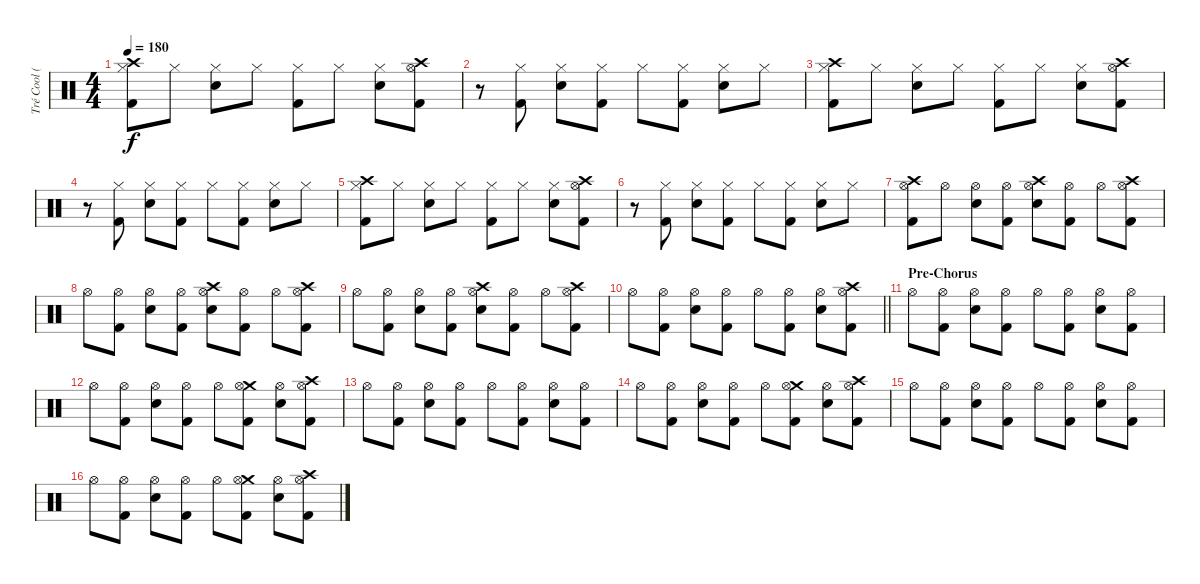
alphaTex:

\track ("Tré Cool (Drums)" "Tré Cool (") {instrument percussion}
\staff {score}
\articulation defaults
\ts (4 4)
\tempo 180
\clef neutral
\ks c
("Crash high (hit)" "Hi-Hat (closed)" "Kick (hit) 2").8{dy f} "Hi-Hat (closed)".8 ("Hi-Hat (closed)" "Electric Snare (hit)").8 "Hi-Hat (closed)".8 ("Hi-Hat (closed)" "Kick (hit) 2").8 "Hi-Hat (closed)".8 ("Hi-Hat (closed)" "Electric Snare (hit)").8 ("Crash high (hit)" "Hi-Hat (open)" "Kick (hit) 2").8 |
r.8 ("Hi-Hat (closed)" "Kick (hit) 2").8 ("Hi-Hat (closed)" "Electric Snare (hit)").8 ("Hi-Hat (closed)" "Kick (hit) 2").8 "Hi-Hat (closed)".8 ("Hi-Hat (closed)" "Kick (hit) 2").8 ("Hi-Hat (closed)" "Electric Snare (hit)").8 "Hi-Hat (closed)".8 |
("Crash high (hit)" "Hi-Hat (closed)" "Kick (hit) 2").8 "Hi-Hat (closed)".8 ("Hi-Hat (closed)" "Electric Snare (hit)").8 "Hi-Hat (closed)".8 ("Hi-Hat (closed)" "Kick (hit) 2").8 "Hi-Hat (closed)".8 ("Hi-Hat (closed)" "Electric Snare (hit)").8 ("Crash high (hit)" "Hi-Hat (open)" "Kick (hit) 2").8 |
r.8 ("Hi-Hat (closed)" "Kick (hit) 2").8 ("Hi-Hat (closed)" "Electric Snare (hit)").8 ("Hi-Hat (closed)" "Kick (hit) 2").8 "Hi-Hat (closed)".8 ("Hi-Hat (closed)" "Kick (hit) 2").8 ("Hi-Hat (closed)" "Electric Snare (hit)").8 "Hi-Hat (closed)".8 |
("Crash high (hit)" "Hi-Hat (closed)" "Kick (hit) 2").8 "Hi-Hat (closed)".8 ("Hi-Hat (closed)" "Electric Snare (hit)").8 "Hi-Hat (closed)".8 ("Hi-Hat (closed)" "Kick (hit) 2").8 "Hi-Hat (closed)".8 ("Hi-Hat (closed)" "Electric Snare (hit)").8 ("Crash high (hit)" "Hi-Hat (open)" "Kick (hit) 2").8 |
r.8 ("Hi-Hat (closed)" "Kick (hit) 2").8 ("Hi-Hat (closed)" "Electric Snare (hit)").8 ("Hi-Hat (closed)" "Kick (hit) 2").8 "Hi-Hat (closed)".8 ("Hi-Hat (closed)" "Kick (hit) 2").8 ("Hi-Hat (closed)" "Electric Snare (hit)").8 "Hi-Hat (closed)".8 |
("Crash high (hit)" "Hi-Hat (open)" "Kick (hit) 2").8 "Hi-Hat (open)".8 ("Hi-Hat (open)" "Electric Snare (hit)").8 ("Hi-Hat (open)" "Kick (hit) 2").8 ("Crash high (hit)" "Hi-Hat (open)" "Electric Snare (hit)").8 ("Hi-Hat (open)" "Kick (hit) 2").8 "Hi-Hat (open)".8 ("Crash high (hit)" "Hi-Hat (open)" "Kick (hit) 2").8 |
"Hi-Hat (open)".8 ("Hi-Hat (open)" "Kick (hit) 2").8 ("Hi-Hat (open)" "Electric Snare (hit)").8 ("Hi-Hat (open)" "Kick (hit) 2").8 ("Crash high (hit)" "Hi-Hat (open)" "Electric Snare (hit)").8 ("Hi-Hat (open)" "Kick (hit) 2").8 "Hi-Hat (open)".8 ("Crash high (hit)" "Hi-Hat (open)" "Kick (hit) 2").8 |
"Hi-Hat (open)".8 ("Hi-Hat (open)" "Kick (hit) 2").8 ("Hi-Hat (open)" "Electric Snare (hit)").8 ("Hi-Hat (open)" "Kick (hit) 2").8 ("Crash high (hit)" "Hi-Hat (open)" "Electric Snare (hit)").8 ("Hi-Hat (open)" "Kick (hit) 2").8 "Hi-Hat (open)".8 ("Crash high (hit)" "Hi-Hat (open)" "Kick (hit) 2").8 |
\barLineRight lightlight "Hi-Hat (open)".8
("Hi-Hat (open)" "Kick (hit) 2").8 ("Hi-Hat (open)" "Electric Snare (hit)").8 ("Hi-Hat (open)" "Kick (hit) 2").8 "Hi-Hat (open)".8 ("Hi-Hat (open)" "Kick (hit) 2").8 ("Hi-Hat (open)" "Electric Snare (hit)").8 ("Crash high (hit)" "Hi-Hat (open)" "Kick (hit) 2").8 |
\section ("" "Pre-Chorus")
"Hi-Hat (open)".8 ("Hi-Hat (open)" "Kick (hit) 2").8 ("Hi-Hat (open)" "Electric Snare (hit)").8 ("Hi-Hat (open)" "Kick (hit) 2").8 "Hi-Hat (open)".8 ("Hi-Hat (open)" "Kick (hit) 2").8 ("Hi-Hat (open)" "Electric Snare (hit)").8 ("Hi-Hat (open)" "Kick (hit) 2").8 |
"Hi-Hat (open)".8 ("Hi-Hat (open)" "Kick (hit) 2").8 ("Hi-Hat (open)" "Electric Snare (hit)").8 ("Hi-Hat (open)" "Kick (hit) 2").8 "Hi-Hat (open)".8 ("Crash medium (hit)" "Hi-Hat (open)" "Kick (hit) 2").8 ("Hi-Hat (open)" "Electric Snare (hit)").8 ("Crash high (hit)" "Hi-Hat (open)" "Kick (hit) 2").8 |
"Hi-Hat (open)".8 ("Hi-Hat (open)" "Kick (hit) 2").8 ("Hi-Hat (open)" "Electric Snare (hit)").8 ("Hi-Hat (open)" "Kick (hit) 2").8 "Hi-Hat (open)".8 ("Hi-Hat (open)" "Kick (hit) 2").8 ("Hi-Hat (open)" "Electric Snare (hit)").8 ("Hi-Hat (open)" "Kick (hit) 2").8 |
"Hi-Hat (open)".8 ("Hi-Hat (open)" "Kick (hit) 2").8 ("Hi-Hat (open)" "Electric Snare (hit)").8 ("Hi-Hat (open)" "Kick (hit) 2").8 "Hi-Hat (open)".8 ("Crash medium (hit)" "Hi-Hat (open)" "Kick (hit) 2").8 ("Hi-Hat (open)" "Electric Snare (hit)").8 ("Crash high (hit)" "Hi-Hat (open)" "Kick (hit) 2").8 |
"Hi-Hat (open)".8 ("Hi-Hat (open)" "Kick (hit) 2").8 ("Hi-Hat (open)" "Electric Snare (hit)").8 ("Hi-Hat (open)" "Kick (hit) 2").8 "Hi-Hat (open)".8 ("Hi-Hat (open)" "Kick (hit) 2").8 ("Hi-Hat (open)" "Electric Snare (hit)").8 ("Hi-Hat (open)" "Kick (hit) 2").8 |
"Hi-Hat (open)".8 ("Hi-Hat (open)" "Kick (hit) 2").8 ("Hi-Hat (open)" "Electric Snare (hit)").8 ("Hi-Hat (open)" "Kick (hit) 2").8 "Hi-Hat (open)".8 ("Crash medium (hit)" "Hi-Hat (open)" "Kick (hit) 2").8 ("Hi-Hat (open)" "Electric Snare (hit)").8 ("Crash high (hit)" "Hi-Hat (open)" "Kick (hit) 2").8
